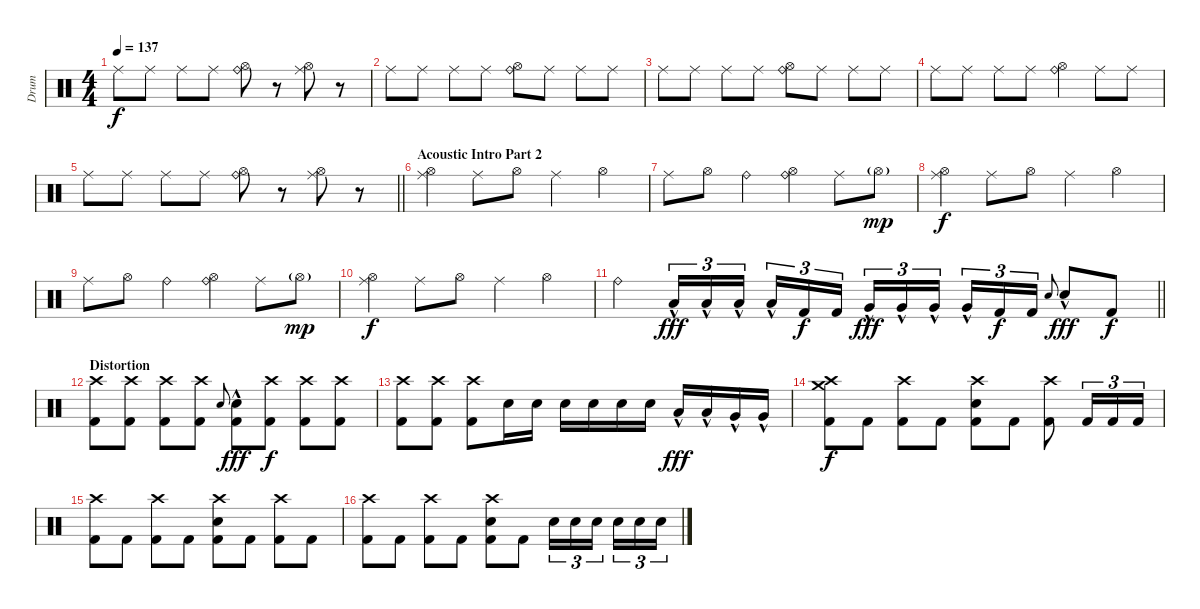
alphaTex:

\track ("Drum" "Drum") {instrument percussion}
\staff {score}
\articulation defaults
\ts (4 4)
\tempo 137
\clef neutral
\ks c "Ride (middle)".8{dy f} "Ride (middle)".8 "Ride (middle)".8 "Ride (middle)".8
("Ride (bell)" "Hi-Hat (open)").8 r.8 ("Ride (middle)" "Hi-Hat (open)").8 r.8 |
"Ride (middle)".8 "Ride (middle)".8 "Ride (middle)".8 "Ride (middle)".8 ("Ride (bell)" "Hi-Hat (open)").8 "Ride (middle)".8 "Ride (middle)".8 "Ride (middle)".8 |
"Ride (middle)".8 "Ride (middle)".8 "Ride (middle)".8 "Ride (middle)".8 ("Ride (bell)" "Hi-Hat (open)").8 "Ride (middle)".8 "Ride (middle)".8 "Ride (middle)".8 |
"Ride (middle)".8 "Ride (middle)".8 "Ride (middle)".8 "Ride (middle)".8 ("Ride (bell)" "Hi-Hat (open)").4 "Ride (middle)".8 "Ride (middle)".8 |
\barLineRight lightlight "Ride (middle)".8 "Ride (middle)".8 "Ride (middle)".8 "Ride (middle)".8
("Ride (bell)" "Hi-Hat (open)").8 r.8 ("Ride (middle)" "Hi-Hat (open)").8 r.8 |
\section ("" "Acoustic Intro Part 2")
("Ride (middle)" "Hi-Hat (open)").4 "Ride (middle)".8 "Hi-Hat (open)".8 "Ride (middle)".4 "Hi-Hat (open)".4 |
"Ride (middle)".8 "Hi-Hat (open)".8 "Ride (bell)".4 ("Ride (bell)" "Hi-Hat (open)").4 "Ride (middle)".8 "Hi-Hat (open)"{g}.8{dy mp} |
("Ride (middle)" "Hi-Hat (open)").4{dy f} "Ride (middle)".8 "Hi-Hat (open)".8 "Ride (middle)".4 "Hi-Hat (open)".4 |
"Ride (middle)".8 "Hi-Hat (open)".8 "Ride (bell)".4 ("Ride (bell)" "Hi-Hat (open)").4 "Ride (middle)".8 "Hi-Hat (open)"{g}.8{dy mp} |
("Ride (middle)" "Hi-Hat (open)").4{dy f} "Ride (middle)".8 "Hi-Hat (open)".8 "Ride (middle)".4 "Hi-Hat (open)".4 |
\barLineRight lightlight "Ride (bell)".4 "Low Tom (hit)"{hac}.16{tu (3 2) dy fff} "Low Tom (hit)"{hac}.16{tu (3 2)} "Low Tom (hit)"{hac}.16{tu (3 2) beam splitsecondary} "Low Tom (hit)"{hac}.16{tu (3 2)} "Kick (hit) 2".16{tu (3 2) dy f} "Kick (hit) 2".16{tu (3 2)} "Very Low Tom (hit)"{hac}.16{tu (3 2) dy fff} "Very Low Tom (hit)"{hac}.16{tu (3 2)} "Very Low Tom (hit)"{hac}.16{tu (3 2) beam splitsecondary} "Very Low Tom (hit)"{hac}.16{tu (3 2)} "Kick (hit) 2".16{tu (3 2) dy f} "Kick (hit) 2".16{tu (3 2)} "Electric Snare (hit)".8{gr onbeat} "Electric Snare (hit)"{hac}.8{dy fff} "Kick (hit) 2".8{dy f}
|
\section ("" "Distortion")
("Crash high (hit)" "Kick (hit) 2").8 ("Crash high (hit)" "Kick (hit) 2").8 ("Crash high (hit)" "Kick (hit) 2").8 ("Crash high (hit)" "Kick (hit) 2").8 "Electric Snare (hit)".8{gr onbeat} ("Electric Snare (hit)"{hac} "Kick (hit) 2").8{dy fff} ("Crash high (hit)" "Kick (hit) 2").8{dy f} ("Crash high (hit)" "Kick (hit) 2").8 ("Crash high (hit)" "Kick (hit) 2").8 |
("Crash high (hit)" "Kick (hit) 2").8 ("Crash high (hit)" "Kick (hit) 2").8 ("Crash high (hit)" "Kick (hit) 2").8 "Electric Snare (hit)".16 "Electric Snare (hit)".16 "Electric Snare (hit)".16 "Electric Snare (hit)".16 "Electric Snare (hit)".16 "Electric Snare (hit)".16 "Low Tom (hit)"{hac}.16{dy fff} "Low Tom (hit)"{hac}.16 "Very Low Tom (hit)"{hac}.16 "Very Low Tom (hit)"{hac}.16 |
("Crash medium (hit)" "Crash high (hit)" "Kick (hit) 2").8{dy f} "Kick (hit) 2".8 ("Crash high (hit)" "Kick (hit) 2").8 "Kick (hit) 2".8 ("Crash high (hit)" "Electric Snare (hit)" "Kick (hit) 2").8 "Kick (hit) 2".8 ("Crash high (hit)" "Kick (hit) 2").8 "Kick (hit) 2".16{tu (3 2)} "Kick (hit) 2".16{tu (3 2)} "Kick (hit) 2".16{tu (3 2)} |
("Crash high (hit)" "Kick (hit) 2").8 "Kick (hit) 2".8 ("Crash high (hit)" "Kick (hit) 2").8 "Kick (hit) 2".8 ("Crash high (hit)" "Electric Snare (hit)" "Kick (hit) 2").8 "Kick (hit) 2".8 ("Crash high (hit)" "Kick (hit) 2").8 "Kick (hit) 2".8 |
("Crash high (hit)" "Kick (hit) 2").8 "Kick (hit) 2".8 ("Crash high (hit)" "Kick (hit) 2").8 "Kick (hit) 2".8 ("Crash high (hit)" "Electric Snare (hit)" "Kick (hit) 2").8 "Kick (hit) 2".8 "Electric Snare (hit)".16{tu (3 2)} "Electric Snare (hit)".16{tu (3 2)} "Electric Snare (hit)".16{tu (3 2) beam splitsecondary} "Electric Snare (hit)".16{tu (3 2)} "Electric Snare (hit)".16{tu (3 2)} "Electric Snare (hit)".16{tu (3 2)}
